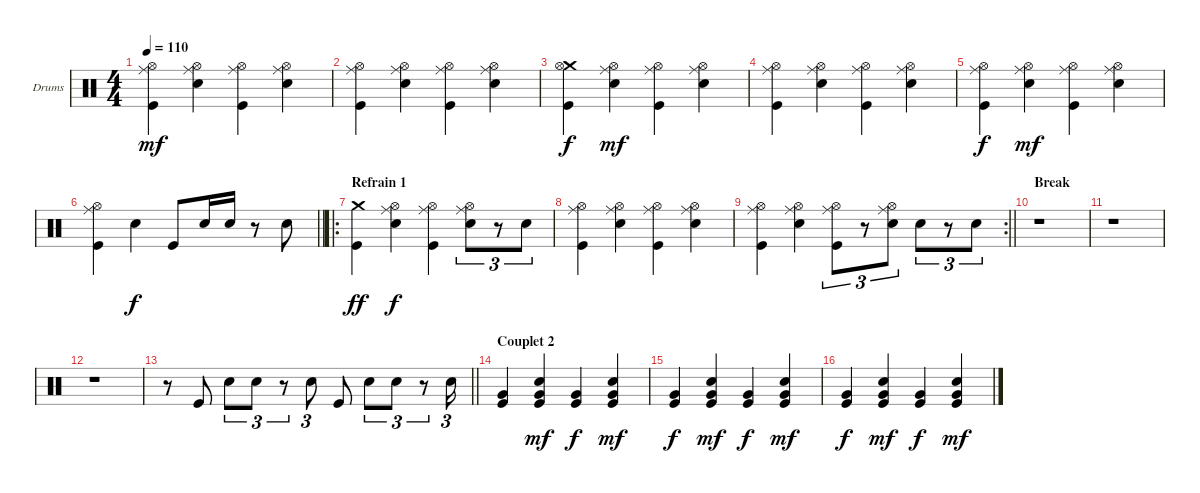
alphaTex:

\bracketExtendMode groupsimilarinstruments
\firstSystemTrackNameOrientation horizontal
\otherSystemsTrackNameOrientation horizontal
\chordDiagramsInScore
\track ("Drumkit" "Drums") {instrument percussion}
\staff {score}
\articulation defaults
\ts (4 4)
\tempo 110
\clef neutral
\ks c
("Ride (middle)" "Hi-Hat (open)" "Kick (hit)").4{dy mf} ("Ride (middle)" "Hi-Hat (open)" "Snare (hit) 2").4 ("Ride (middle)" "Hi-Hat (open)" "Kick (hit)").4 ("Ride (middle)" "Hi-Hat (open)" "Snare (hit) 2").4 |
("Ride (middle)" "Hi-Hat (open)" "Kick (hit)").4 ("Ride (middle)" "Hi-Hat (open)" "Snare (hit) 2").4 ("Ride (middle)" "Hi-Hat (open)" "Kick (hit)").4 ("Ride (middle)" "Hi-Hat (open)" "Snare (hit) 2").4 |
("Crash medium (hit)" "Hi-Hat (open)" "Kick (hit)").4{dy f} ("Ride (middle)" "Hi-Hat (open)" "Snare (hit) 2").4{dy mf} ("Ride (middle)" "Hi-Hat (open)" "Kick (hit)").4 ("Ride (middle)" "Hi-Hat (open)" "Snare (hit) 2").4 |
("Ride (middle)" "Hi-Hat (open)" "Kick (hit)").4 ("Ride (middle)" "Hi-Hat (open)" "Snare (hit) 2").4 ("Ride (middle)" "Hi-Hat (open)" "Kick (hit)").4 ("Ride (middle)" "Hi-Hat (open)" "Snare (hit) 2").4 |
("Ride (middle)" "Hi-Hat (open)" "Kick (hit)").4{dy f} ("Ride (middle)" "Hi-Hat (open)" "Snare (hit) 2").4{dy mf} ("Ride (middle)" "Hi-Hat (open)" "Kick (hit)").4 ("Ride (middle)" "Hi-Hat (open)" "Snare (hit) 2").4 |
\barLineRight lightlight
("Ride (middle)" "Hi-Hat (open)" "Kick (hit)").4 "Snare (hit) 2".4{dy f} "Kick (hit)".8 "Snare (hit) 2".16 "Snare (hit) 2".16 r.8 "Snare (hit) 2".8 |
\ro
\section ("" "Refrain 1")
("Crash medium (hit)" "Kick (hit)").4{dy ff} ("Ride (middle)" "Hi-Hat (open)" "Snare (hit) 2").4{dy f} ("Ride (middle)" "Hi-Hat (open)" "Kick (hit)").4 ("Ride (middle)" "Hi-Hat (open)" "Snare (hit) 2").8{tu (3 2)} r.8{tu (3 2)} "Snare (hit) 2".8{tu (3 2)} |
("Ride (middle)" "Hi-Hat (open)" "Kick (hit)").4 ("Ride (middle)" "Hi-Hat (open)" "Snare (hit) 2").4 ("Ride (middle)" "Hi-Hat (open)" "Kick (hit)").4 ("Ride (middle)" "Hi-Hat (open)" "Snare (hit) 2").4 |
\rc 2
\barLineRight lightlight
("Ride (middle)" "Hi-Hat (open)" "Kick (hit)").4 ("Ride (middle)" "Hi-Hat (open)" "Snare (hit) 2").4 ("Ride (middle)" "Hi-Hat (open)" "Kick (hit)").8{tu (3 2)} r.8{tu (3 2)} ("Ride (middle)" "Hi-Hat (open)" "Snare (hit) 2").8{tu (3 2)} "Snare (hit) 2".8{tu (3 2)} r.8{tu (3 2)} "Snare (hit) 2".8{tu (3 2)} |
\section ("" "Break")
r.1 |
r.1 |
r.1 |
\barLineRight lightlight
r.8 "Kick (hit)".8 "Snare (hit) 2".8{tu (3 2)} "Snare (hit) 2".8{tu (3 2)} r.8{tu (3 2)} "Snare (hit) 2".8{tu (3 2)} "Kick (hit)".8 "Snare (hit) 2".8{tu (3 2)} "Snare (hit) 2".8{tu (3 2)} r.8{tu (3 2)} "Snare (hit) 2".16{tu (3 2)} |
\section ("" "Couplet 2")
("Kick (hit)" "Very Low Tom (hit)").4 ("Snare (hit) 2" "Kick (hit)" "Very Low Tom (hit)").4{dy mf} ("Kick (hit)" "Very Low Tom (hit)").4{dy f} ("Snare (hit) 2" "Kick (hit)" "Very Low Tom (hit)").4{dy mf} |
("Kick (hit)" "Very Low Tom (hit)").4{dy f} ("Snare (hit) 2" "Kick (hit)" "Very Low Tom (hit)").4{dy mf} ("Kick (hit)" "Very Low Tom (hit)").4{dy f} ("Snare (hit) 2" "Kick (hit)" "Very Low Tom (hit)").4{dy mf} |
("Kick (hit)" "Very Low Tom (hit)").4{dy f} ("Snare (hit) 2" "Kick (hit)" "Very Low Tom (hit)").4{dy mf} ("Kick (hit)" "Very Low Tom (hit)").4{dy f} ("Snare (hit) 2" "Kick (hit)" "Very Low Tom (hit)").4{dy mf}
